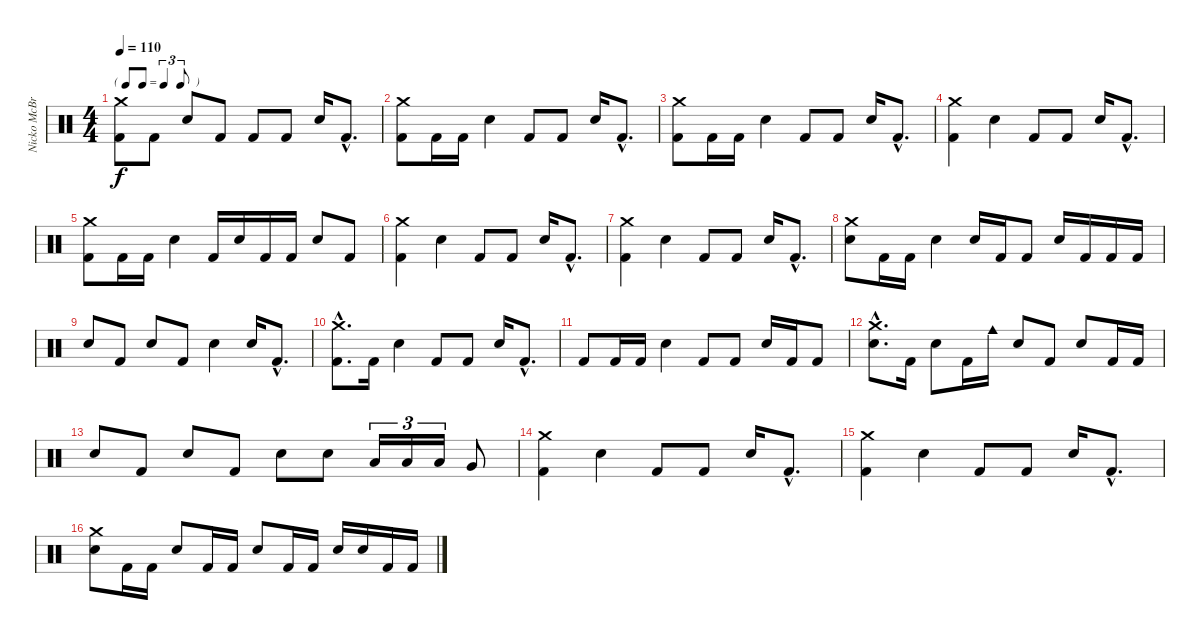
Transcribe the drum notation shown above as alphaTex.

\track ("Nicko McBrain" "Nicko McBr") {instrument percussion}
\staff {score}
\articulation defaults
\ts (4 4)
\tf triplet8th
\tempo 110
\clef neutral
\ks c
("Crash medium (hit)" "Kick (hit) 2").8{dy f} "Kick (hit) 2".8 "Electric Snare (hit)".8 "Kick (hit) 2".8 "Kick (hit) 2".8 "Kick (hit) 2".8 "Electric Snare (hit)".16 "Kick (hit) 2"{hac}.8{d} |
("Crash medium (hit)" "Kick (hit) 2").8 "Kick (hit) 2".16 "Kick (hit) 2".16 "Electric Snare (hit)".4 "Kick (hit) 2".8 "Kick (hit) 2".8 "Electric Snare (hit)".16 "Kick (hit) 2"{hac}.8{d} |
("Crash medium (hit)" "Kick (hit) 2").8 "Kick (hit) 2".16 "Kick (hit) 2".16 "Electric Snare (hit)".4 "Kick (hit) 2".8 "Kick (hit) 2".8 "Electric Snare (hit)".16 "Kick (hit) 2"{hac}.8{d} |
("Crash medium (hit)" "Kick (hit) 2").4 "Electric Snare (hit)".4 "Kick (hit) 2".8 "Kick (hit) 2".8 "Electric Snare (hit)".16 "Kick (hit) 2"{hac}.8{d} |
("Crash medium (hit)" "Kick (hit) 2").8 "Kick (hit) 2".16 "Kick (hit) 2".16 "Electric Snare (hit)".4 "Kick (hit) 2".16 "Electric Snare (hit)".16 "Kick (hit) 2".16 "Kick (hit) 2".16 "Electric Snare (hit)".8 "Kick (hit) 2".8 |
("Crash medium (hit)" "Kick (hit) 2").4 "Electric Snare (hit)".4 "Kick (hit) 2".8 "Kick (hit) 2".8 "Electric Snare (hit)".16 "Kick (hit) 2"{hac}.8{d} |
("Crash medium (hit)" "Kick (hit) 2").4 "Electric Snare (hit)".4 "Kick (hit) 2".8 "Kick (hit) 2".8 "Electric Snare (hit)".16 "Kick (hit) 2"{hac}.8{d} |
("Crash medium (hit)" "Electric Snare (hit)").8 "Kick (hit) 2".16 "Kick (hit) 2".16 "Electric Snare (hit)".4 "Electric Snare (hit)".16 "Kick (hit) 2".16 "Kick (hit) 2".8 "Electric Snare (hit)".16 "Kick (hit) 2".16 "Kick (hit) 2".16 "Kick (hit) 2".16 |
"Electric Snare (hit)".8 "Kick (hit) 2".8 "Electric Snare (hit)".8 "Kick (hit) 2".8 "Electric Snare (hit)".4 "Electric Snare (hit)".16 "Kick (hit) 2"{hac}.8{d} |
("Crash medium (hit)"{hac} "Kick (hit) 2"{hac}).8{d} "Kick (hit) 2".16 "Electric Snare (hit)".4 "Kick (hit) 2".8 "Kick (hit) 2".8 "Electric Snare (hit)".16 "Kick (hit) 2"{hac}.8{d} |
"Kick (hit) 2".8 "Kick (hit) 2".16 "Kick (hit) 2".16 "Electric Snare (hit)".4 "Kick (hit) 2".8 "Kick (hit) 2".8 "Electric Snare (hit)".16 "Kick (hit) 2".16 "Kick (hit) 2".8 |
("Crash medium (hit)"{hac} "Electric Snare (hit)"{hac}).8{d} "Kick (hit) 2".16 "Electric Snare (hit)".8 "Kick (hit) 2".16 "Cowbell medium (hit)".16 "Electric Snare (hit)".8 "Kick (hit) 2".8 "Electric Snare (hit)".8 "Kick (hit) 2".16 "Kick (hit) 2".16 |
"Electric Snare (hit)".8 "Kick (hit) 2".8 "Electric Snare (hit)".8 "Kick (hit) 2".8 "Electric Snare (hit)".8 "Electric Snare (hit)".8 "Low Tom (hit)".16{tu (3 2)} "Low Tom (hit)".16{tu (3 2)} "Low Tom (hit)".16{tu (3 2)} "Very Low Tom (hit)".8 |
("Crash medium (hit)" "Kick (hit) 2").4 "Electric Snare (hit)".4 "Kick (hit) 2".8 "Kick (hit) 2".8 "Electric Snare (hit)".16 "Kick (hit) 2"{hac}.8{d} |
("Crash medium (hit)" "Kick (hit) 2").4 "Electric Snare (hit)".4 "Kick (hit) 2".8 "Kick (hit) 2".8 "Electric Snare (hit)".16 "Kick (hit) 2"{hac}.8{d} |
("Crash medium (hit)" "Electric Snare (hit)").8 "Kick (hit) 2".16 "Kick (hit) 2".16 "Electric Snare (hit)".8 "Kick (hit) 2".16 "Kick (hit) 2".16 "Electric Snare (hit)".8 "Kick (hit) 2".16 "Kick (hit) 2".16 "Electric Snare (hit)".16 "Electric Snare (hit)".16 "Kick (hit) 2".16 "Kick (hit) 2".16
